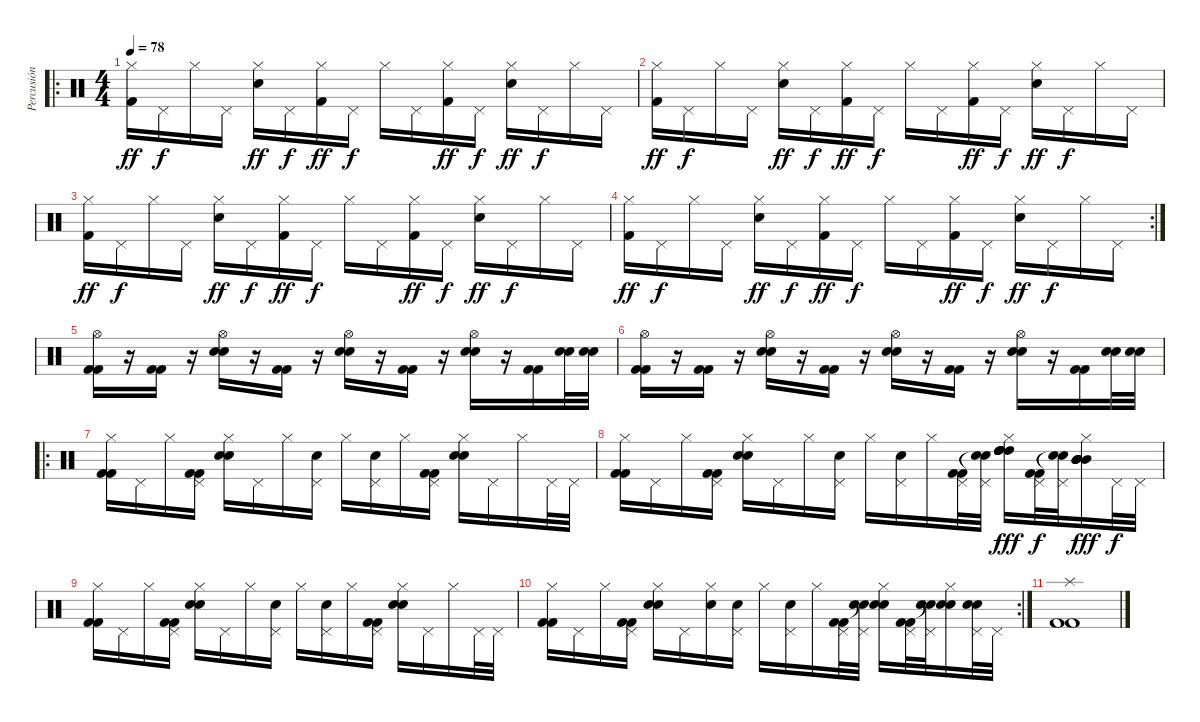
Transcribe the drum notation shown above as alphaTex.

\track ("Percusión" "Percusión") {instrument percussion}
\staff {score}
\articulation defaults
\ro
\ts (4 4)
\tempo 78
\clef neutral
\ks c
("Hi-Hat (closed)" "Kick (hit) 2").16{dy ff} "Pedal Hi-Hat (hit)".16{dy f} "Hi-Hat (closed)".16 "Pedal Hi-Hat (hit)".16 ("Hi-Hat (closed)" "Electric Snare (hit)").16{dy ff} "Pedal Hi-Hat (hit)".16{dy f} ("Hi-Hat (closed)" "Kick (hit) 2").16{dy ff} "Pedal Hi-Hat (hit)".16{dy f} "Hi-Hat (closed)".16 "Pedal Hi-Hat (hit)".16 ("Hi-Hat (closed)" "Kick (hit) 2").16{dy ff} "Pedal Hi-Hat (hit)".16{dy f} ("Hi-Hat (closed)" "Electric Snare (hit)").16{dy ff} "Pedal Hi-Hat (hit)".16{dy f} "Hi-Hat (closed)".16 "Pedal Hi-Hat (hit)".16 |
("Hi-Hat (closed)" "Kick (hit) 2").16{dy ff} "Pedal Hi-Hat (hit)".16{dy f} "Hi-Hat (closed)".16 "Pedal Hi-Hat (hit)".16 ("Hi-Hat (closed)" "Electric Snare (hit)").16{dy ff} "Pedal Hi-Hat (hit)".16{dy f} ("Hi-Hat (closed)" "Kick (hit) 2").16{dy ff} "Pedal Hi-Hat (hit)".16{dy f} "Hi-Hat (closed)".16 "Pedal Hi-Hat (hit)".16 ("Hi-Hat (closed)" "Kick (hit) 2").16{dy ff} "Pedal Hi-Hat (hit)".16{dy f} ("Hi-Hat (closed)" "Electric Snare (hit)").16{dy ff} "Pedal Hi-Hat (hit)".16{dy f} "Hi-Hat (closed)".16 "Pedal Hi-Hat (hit)".16 |
("Hi-Hat (closed)" "Kick (hit) 2").16{dy ff} "Pedal Hi-Hat (hit)".16{dy f} "Hi-Hat (closed)".16 "Pedal Hi-Hat (hit)".16 ("Hi-Hat (closed)" "Electric Snare (hit)").16{dy ff} "Pedal Hi-Hat (hit)".16{dy f} ("Hi-Hat (closed)" "Kick (hit) 2").16{dy ff} "Pedal Hi-Hat (hit)".16{dy f} "Hi-Hat (closed)".16 "Pedal Hi-Hat (hit)".16 ("Hi-Hat (closed)" "Kick (hit) 2").16{dy ff} "Pedal Hi-Hat (hit)".16{dy f} ("Hi-Hat (closed)" "Electric Snare (hit)").16{dy ff} "Pedal Hi-Hat (hit)".16{dy f} "Hi-Hat (closed)".16 "Pedal Hi-Hat (hit)".16 |
\rc 2
("Hi-Hat (closed)" "Kick (hit) 2").16{dy ff} "Pedal Hi-Hat (hit)".16{dy f} "Hi-Hat (closed)".16 "Pedal Hi-Hat (hit)".16 ("Hi-Hat (closed)" "Electric Snare (hit)").16{dy ff} "Pedal Hi-Hat (hit)".16{dy f} ("Hi-Hat (closed)" "Kick (hit) 2").16{dy ff} "Pedal Hi-Hat (hit)".16{dy f} "Hi-Hat (closed)".16 "Pedal Hi-Hat (hit)".16 ("Hi-Hat (closed)" "Kick (hit) 2").16{dy ff} "Pedal Hi-Hat (hit)".16{dy f} ("Hi-Hat (closed)" "Electric Snare (hit)").16{dy ff} "Pedal Hi-Hat (hit)".16{dy f} "Hi-Hat (closed)".16 "Pedal Hi-Hat (hit)".16 |
("Hi-Hat (open)" "Kick (hit) 2" "Kick (hit) 2").16 r.16 ("Kick (hit) 2" "Kick (hit) 2").16 r.16 ("Hi-Hat (open)" "Electric Snare (hit)" "Electric Snare (hit)").16 r.16 ("Kick (hit) 2" "Kick (hit) 2").16 r.16 ("Hi-Hat (open)" "Electric Snare (hit)" "Electric Snare (hit)").16 r.16 ("Kick (hit) 2" "Kick (hit) 2").16 r.16 ("Hi-Hat (open)" "Electric Snare (hit)" "Electric Snare (hit)").16 r.16 ("Kick (hit) 2" "Kick (hit) 2").16 ("Electric Snare (hit)" "Electric Snare (hit)").32 ("Electric Snare (hit)" "Electric Snare (hit)").32 |
("Hi-Hat (open)" "Kick (hit) 2" "Kick (hit) 2").16 r.16 ("Kick (hit) 2" "Kick (hit) 2").16 r.16 ("Hi-Hat (open)" "Electric Snare (hit)" "Electric Snare (hit)").16 r.16 ("Kick (hit) 2" "Kick (hit) 2").16 r.16 ("Hi-Hat (open)" "Electric Snare (hit)" "Electric Snare (hit)").16 r.16 ("Kick (hit) 2" "Kick (hit) 2").16 r.16 ("Hi-Hat (open)" "Electric Snare (hit)" "Electric Snare (hit)").16 r.16 ("Kick (hit) 2" "Kick (hit) 2").16 ("Electric Snare (hit)" "Electric Snare (hit)").32 ("Electric Snare (hit)" "Electric Snare (hit)").32 |
\ro
("Hi-Hat (closed)" "Kick (hit) 2" "Kick (hit) 2").16 "Pedal Hi-Hat (hit)".16 "Hi-Hat (closed)".16 ("Pedal Hi-Hat (hit)" "Kick (hit) 2" "Kick (hit) 2").16 ("Hi-Hat (closed)" "Electric Snare (hit)" "Electric Snare (hit)").16 "Pedal Hi-Hat (hit)".16 "Hi-Hat (closed)".16 ("Pedal Hi-Hat (hit)" "Electric Snare (hit)").16 "Hi-Hat (closed)".16 ("Pedal Hi-Hat (hit)" "Electric Snare (hit)").16 "Hi-Hat (closed)".16 ("Pedal Hi-Hat (hit)" "Kick (hit) 2" "Kick (hit) 2").16 ("Hi-Hat (closed)" "Electric Snare (hit)" "Electric Snare (hit)").16 "Pedal Hi-Hat (hit)".16 "Hi-Hat (closed)".16 "Pedal Hi-Hat (hit)".32 "Pedal Hi-Hat (hit)".32 |
("Hi-Hat (closed)" "Kick (hit) 2" "Kick (hit) 2").16 "Pedal Hi-Hat (hit)".16 "Hi-Hat (closed)".16 ("Pedal Hi-Hat (hit)" "Kick (hit) 2" "Kick (hit) 2").16 ("Hi-Hat (closed)" "Electric Snare (hit)" "Electric Snare (hit)").16 "Pedal Hi-Hat (hit)".16 "Hi-Hat (closed)".16 ("Pedal Hi-Hat (hit)" "Electric Snare (hit)").16 "Hi-Hat (closed)".16 ("Pedal Hi-Hat (hit)" "Electric Snare (hit)").16 "Hi-Hat (closed)".16 ("Pedal Hi-Hat (hit)" "Kick (hit) 2" "Kick (hit) 2").32 ("Pedal Hi-Hat (hit)" "Snare (hit)"{t} "Snare (hit)"{t}).32 ("Hi-Hat (closed)" "High Tom (hit)" "High Tom (hit)" "High Tom (hit)" "High Tom (hit)" "High Tom (hit)").16{dy fff} ("Pedal Hi-Hat (hit)" "Kick (hit) 2" "Kick (hit) 2").32{dy f} ("Pedal Hi-Hat (hit)" "Snare (hit)"{t} "Snare (hit)"{t}).32 ("Hi-Hat (closed)" "Mid Tom (hit)" "Mid Tom (hit)" "Mid Tom (hit)" "Mid Tom (hit)" "Mid Tom (hit)").16{dy fff} "Pedal Hi-Hat (hit)".32{dy f} "Pedal Hi-Hat (hit)".32 |
("Hi-Hat (closed)" "Kick (hit) 2" "Kick (hit) 2").16 "Pedal Hi-Hat (hit)".16 "Hi-Hat (closed)".16 ("Pedal Hi-Hat (hit)" "Kick (hit) 2" "Kick (hit) 2").16 ("Hi-Hat (closed)" "Electric Snare (hit)" "Electric Snare (hit)").16 "Pedal Hi-Hat (hit)".16 "Hi-Hat (closed)".16 ("Pedal Hi-Hat (hit)" "Electric Snare (hit)").16 "Hi-Hat (closed)".16 ("Pedal Hi-Hat (hit)" "Electric Snare (hit)").16 "Hi-Hat (closed)".16 ("Pedal Hi-Hat (hit)" "Kick (hit) 2" "Kick (hit) 2").16 ("Hi-Hat (closed)" "Electric Snare (hit)" "Electric Snare (hit)").16 "Pedal Hi-Hat (hit)".16 "Hi-Hat (closed)".16 "Pedal Hi-Hat (hit)".32 "Pedal Hi-Hat (hit)".32 |
\rc 2
("Hi-Hat (closed)" "Kick (hit) 2" "Kick (hit) 2").16 "Pedal Hi-Hat (hit)".16 "Hi-Hat (closed)".16 ("Pedal Hi-Hat (hit)" "Kick (hit) 2" "Kick (hit) 2").16 ("Hi-Hat (closed)" "Electric Snare (hit)" "Electric Snare (hit)").16 "Pedal Hi-Hat (hit)".16 ("Hi-Hat (closed)" "Electric Snare (hit)").16 ("Pedal Hi-Hat (hit)" "Electric Snare (hit)").16 "Hi-Hat (closed)".16 ("Pedal Hi-Hat (hit)" "Electric Snare (hit)").16 "Hi-Hat (closed)".16 ("Pedal Hi-Hat (hit)" "Kick (hit) 2" "Kick (hit) 2").32 ("Pedal Hi-Hat (hit)" "Snare (hit)"{t} "Snare (hit)"{t}).32 ("Hi-Hat (closed)" "Electric Snare (hit)" "Electric Snare (hit)").16 ("Pedal Hi-Hat (hit)" "Kick (hit) 2" "Kick (hit) 2").32 ("Pedal Hi-Hat (hit)" "Snare (hit)"{t} "Snare (hit)"{t}).32 ("Hi-Hat (closed)" "Electric Snare (hit)" "Electric Snare (hit)").16 ("Pedal Hi-Hat (hit)" "Electric Snare (hit)" "Electric Snare (hit)").32 "Pedal Hi-Hat (hit)".32 |
("Splash (hit)" "Kick (hit) 2" "Kick (hit) 2").1
